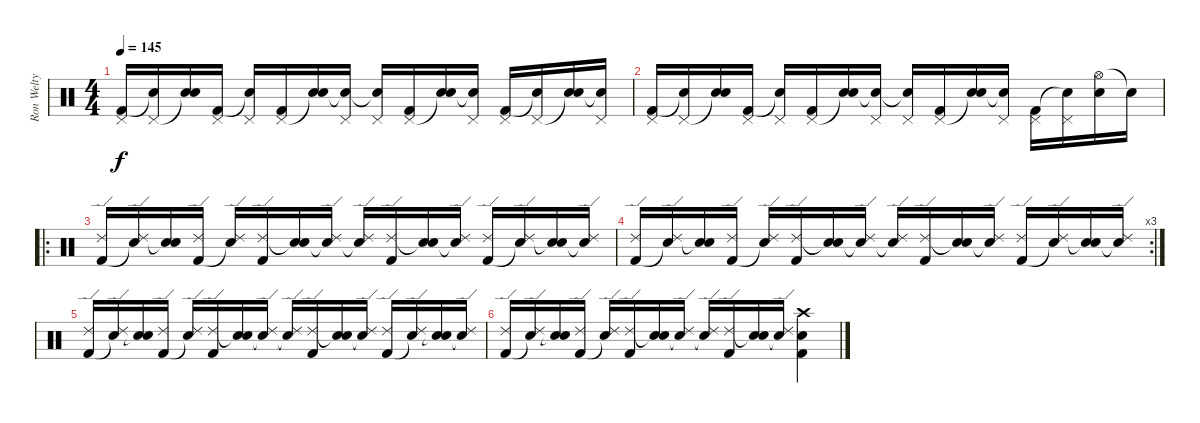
\track ("Ron Welty" "Ron Welty") {instrument percussion}
\staff {score}
\articulation defaults
\ts (4 4)
\tempo 145
\clef neutral
\ks c
("Pedal Hi-Hat (hit)" "Kick (hit) 2").16{dy f} ("Pedal Hi-Hat (hit)" "Snare (hit)"{t}).16 ("Snare (hit)"{t} "Electric Snare (hit)").16 ("Pedal Hi-Hat (hit)" "Kick (hit) 2").16 ("Pedal Hi-Hat (hit)" "Snare (hit)"{t}).16 ("Pedal Hi-Hat (hit)" "Kick (hit) 2").16 ("Snare (hit)"{t} "Electric Snare (hit)").16 ("Pedal Hi-Hat (hit)" "Snare (hit)"{t}).16 ("Pedal Hi-Hat (hit)" "Snare (hit)"{t}).16 ("Pedal Hi-Hat (hit)" "Kick (hit) 2").16 ("Snare (hit)"{t} "Electric Snare (hit)").16 ("Pedal Hi-Hat (hit)" "Snare (hit)"{t}).16 ("Pedal Hi-Hat (hit)" "Kick (hit) 2").16 ("Pedal Hi-Hat (hit)" "Snare (hit)"{t}).16 ("Snare (hit)"{t} "Electric Snare (hit)").16 ("Pedal Hi-Hat (hit)" "Snare (hit)"{t}).16 |
("Pedal Hi-Hat (hit)" "Kick (hit) 2").16 ("Pedal Hi-Hat (hit)" "Snare (hit)"{t}).16 ("Snare (hit)"{t} "Electric Snare (hit)").16 ("Pedal Hi-Hat (hit)" "Kick (hit) 2").16 ("Pedal Hi-Hat (hit)" "Snare (hit)"{t}).16 ("Pedal Hi-Hat (hit)" "Kick (hit) 2").16 ("Snare (hit)"{t} "Electric Snare (hit)").16 ("Pedal Hi-Hat (hit)" "Snare (hit)"{t}).16 ("Pedal Hi-Hat (hit)" "Snare (hit)"{t}).16 ("Pedal Hi-Hat (hit)" "Kick (hit) 2").16 ("Snare (hit)"{t} "Electric Snare (hit)").16 ("Pedal Hi-Hat (hit)" "Snare (hit)"{t}).16 ("Pedal Hi-Hat (hit)" "Kick (hit) 2").16 ("Pedal Hi-Hat (hit)" "Snare (hit)"{t}).16 ("Hi-Hat (open)" "Electric Snare (hit)").16 "Snare (hit)"{t}.16 |
\ro
("Ride (edge) 2" "Kick (hit) 2").16 ("Ride (edge) 2" "Snare (hit)"{t}).16 ("Snare (hit)"{t} "Electric Snare (hit)").16 ("Ride (edge) 2" "Kick (hit) 2").16 ("Ride (edge) 2" "Snare (hit)"{t}).16 ("Ride (edge) 2" "Kick (hit) 2").16 ("Snare (hit)"{t} "Electric Snare (hit)").16 ("Ride (edge) 2" "Snare (hit)"{t}).16 ("Ride (edge) 2" "Snare (hit)"{t}).16 ("Ride (edge) 2" "Kick (hit) 2").16 ("Snare (hit)"{t} "Electric Snare (hit)").16 ("Ride (edge) 2" "Snare (hit)"{t}).16 ("Ride (edge) 2" "Kick (hit) 2").16 ("Ride (edge) 2" "Snare (hit)"{t}).16 ("Snare (hit)"{t} "Electric Snare (hit)").16 ("Ride (edge) 2" "Snare (hit)"{t}).16 |
\rc 3
("Ride (edge) 2" "Kick (hit) 2").16 ("Ride (edge) 2" "Snare (hit)"{t}).16 ("Snare (hit)"{t} "Electric Snare (hit)").16 ("Ride (edge) 2" "Kick (hit) 2").16 ("Ride (edge) 2" "Snare (hit)"{t}).16 ("Ride (edge) 2" "Kick (hit) 2").16 ("Snare (hit)"{t} "Electric Snare (hit)").16 ("Ride (edge) 2" "Snare (hit)"{t}).16 ("Ride (edge) 2" "Snare (hit)"{t}).16 ("Ride (edge) 2" "Kick (hit) 2").16 ("Snare (hit)"{t} "Electric Snare (hit)").16 ("Ride (edge) 2" "Snare (hit)"{t}).16 ("Ride (edge) 2" "Kick (hit) 2").16 ("Ride (edge) 2" "Snare (hit)"{t}).16 ("Snare (hit)"{t} "Electric Snare (hit)").16 ("Ride (edge) 2" "Snare (hit)"{t}).16 |
("Ride (edge) 2" "Kick (hit) 2").16 ("Ride (edge) 2" "Snare (hit)"{t}).16 ("Snare (hit)"{t} "Electric Snare (hit)").16 ("Ride (edge) 2" "Kick (hit) 2").16 ("Ride (edge) 2" "Snare (hit)"{t}).16 ("Ride (edge) 2" "Kick (hit) 2").16 ("Snare (hit)"{t} "Electric Snare (hit)").16 ("Ride (edge) 2" "Snare (hit)"{t}).16 ("Ride (edge) 2" "Snare (hit)"{t}).16 ("Ride (edge) 2" "Kick (hit) 2").16 ("Snare (hit)"{t} "Electric Snare (hit)").16 ("Ride (edge) 2" "Snare (hit)"{t}).16 ("Ride (edge) 2" "Kick (hit) 2").16 ("Ride (edge) 2" "Snare (hit)"{t}).16 ("Snare (hit)"{t} "Electric Snare (hit)").16 ("Ride (edge) 2" "Snare (hit)"{t}).16 |
("Ride (edge) 2" "Kick (hit) 2").16 ("Ride (edge) 2" "Snare (hit)"{t}).16 ("Snare (hit)"{t} "Electric Snare (hit)").16 ("Ride (edge) 2" "Kick (hit) 2").16 ("Ride (edge) 2" "Snare (hit)"{t}).16 ("Ride (edge) 2" "Kick (hit) 2").16 ("Snare (hit)"{t} "Electric Snare (hit)").16 ("Ride (edge) 2" "Snare (hit)"{t}).16 ("Ride (edge) 2" "Snare (hit)"{t}).16 ("Ride (edge) 2" "Kick (hit) 2").16 ("Snare (hit)"{t} "Electric Snare (hit)").16 ("Ride (edge) 2" "Snare (hit)"{t}).16 ("Crash high (hit)" "Electric Snare (hit)" "Kick (hit) 2").4
